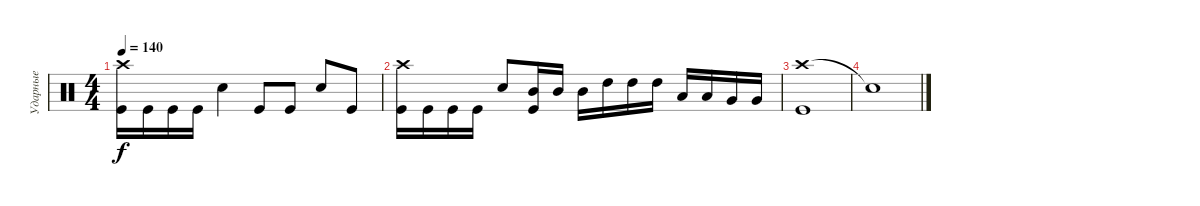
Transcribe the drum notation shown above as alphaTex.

\track ("Ударные" "Ударные") {instrument percussion}
\staff {score}
\articulation defaults
\ts (4 4)
\tempo 140
\clef neutral
\ks c
("Crash high (hit)" "Kick (hit)").16{dy f} "Kick (hit)".16 "Kick (hit)".16 "Kick (hit)".16 "Electric Snare (hit)".4 "Kick (hit)".8 "Kick (hit)".8 "Electric Snare (hit)".8 "Kick (hit)".8 |
("Crash high (hit)" "Kick (hit)").16 "Kick (hit)".16 "Kick (hit)".16 "Kick (hit)".16 "Electric Snare (hit)".8 ("Mid Tom (hit)" "Kick (hit)").16 "Mid Tom (hit)".16 "Mid Tom (hit)".16 "High Tom (hit)".16 "High Tom (hit)".16 "High Tom (hit)".16 "Low Tom (hit)".16 "Low Tom (hit)".16 "Very Low Tom (hit)".16 "Very Low Tom (hit)".16 |
("Crash high (hit)" "Kick (hit)").1 |
"Snare (hit)"{t}.1
